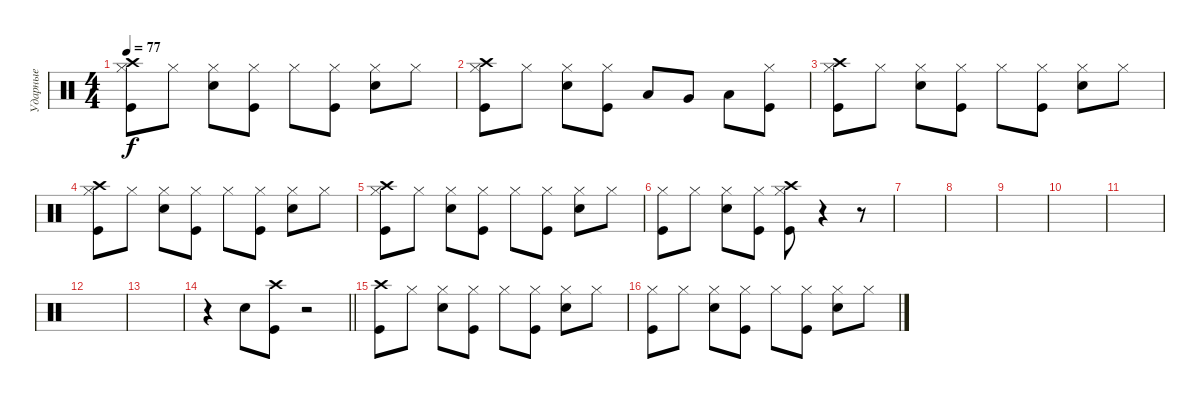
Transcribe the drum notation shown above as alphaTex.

\track ("Ударные" "Ударные") {solo instrument percussion}
\staff {score}
\articulation defaults
\ts (4 4)
\tempo 77
\clef neutral
\ks c
("Kick (hit)" "Crash high (hit)" "Hi-Hat (closed)").8{dy f} "Hi-Hat (closed)".8 ("Snare (hit) 2" "Hi-Hat (closed)").8 ("Kick (hit)" "Hi-Hat (closed)").8 "Hi-Hat (closed)".8 ("Kick (hit)" "Hi-Hat (closed)").8 ("Snare (hit) 2" "Hi-Hat (closed)").8 "Hi-Hat (closed)".8 |
("Kick (hit)" "Crash high (hit)" "Hi-Hat (closed)").8 "Hi-Hat (closed)".8 ("Snare (hit) 2" "Hi-Hat (closed)").8 ("Kick (hit)" "Hi-Hat (closed)").8 "Low Tom (hit)".8 "Very Low Tom (hit)".8 "Low Floor Tom (hit)".8 ("Kick (hit)" "Hi-Hat (closed)").8 |
("Kick (hit)" "Crash high (hit)" "Hi-Hat (closed)").8 "Hi-Hat (closed)".8 ("Snare (hit) 2" "Hi-Hat (closed)").8 ("Kick (hit)" "Hi-Hat (closed)").8 "Hi-Hat (closed)".8 ("Kick (hit)" "Hi-Hat (closed)").8 ("Snare (hit) 2" "Hi-Hat (closed)").8 "Hi-Hat (closed)".8 |
("Kick (hit)" "Crash high (hit)" "Hi-Hat (closed)").8 "Hi-Hat (closed)".8 ("Snare (hit) 2" "Hi-Hat (closed)").8 ("Kick (hit)" "Hi-Hat (closed)").8 "Hi-Hat (closed)".8 ("Kick (hit)" "Hi-Hat (closed)").8 ("Snare (hit) 2" "Hi-Hat (closed)").8 "Hi-Hat (closed)".8 |
("Kick (hit)" "Crash high (hit)" "Hi-Hat (closed)").8 "Hi-Hat (closed)".8 ("Snare (hit) 2" "Hi-Hat (closed)").8 ("Kick (hit)" "Hi-Hat (closed)").8 "Hi-Hat (closed)".8 ("Kick (hit)" "Hi-Hat (closed)").8 ("Snare (hit) 2" "Hi-Hat (closed)").8 "Hi-Hat (closed)".8 |
("Kick (hit)" "Hi-Hat (closed)").8 "Hi-Hat (closed)".8 ("Snare (hit) 2" "Hi-Hat (closed)").8 ("Kick (hit)" "Hi-Hat (closed)").8 ("Kick (hit)" "Crash high (hit)" "Hi-Hat (closed)").8 r.4 r.8 |
|
|
|
|
|
|
|
\barLineRight lightlight
r.4 "Snare (hit) 2".8 ("Kick (hit)" "Crash high (hit)").8 r.2 |
("Kick (hit)" "Crash high (hit)").8 "Hi-Hat (closed)".8 ("Snare (hit) 2" "Hi-Hat (closed)").8 ("Kick (hit)" "Hi-Hat (closed)").8 "Hi-Hat (closed)".8 ("Kick (hit)" "Hi-Hat (closed)").8 ("Snare (hit) 2" "Hi-Hat (closed)").8 "Hi-Hat (closed)".8 |
("Kick (hit)" "Hi-Hat (closed)").8 "Hi-Hat (closed)".8 ("Snare (hit) 2" "Hi-Hat (closed)").8 ("Kick (hit)" "Hi-Hat (closed)").8 "Hi-Hat (closed)".8 ("Kick (hit)" "Hi-Hat (closed)").8 ("Snare (hit) 2" "Hi-Hat (closed)").8 "Hi-Hat (closed)".8
